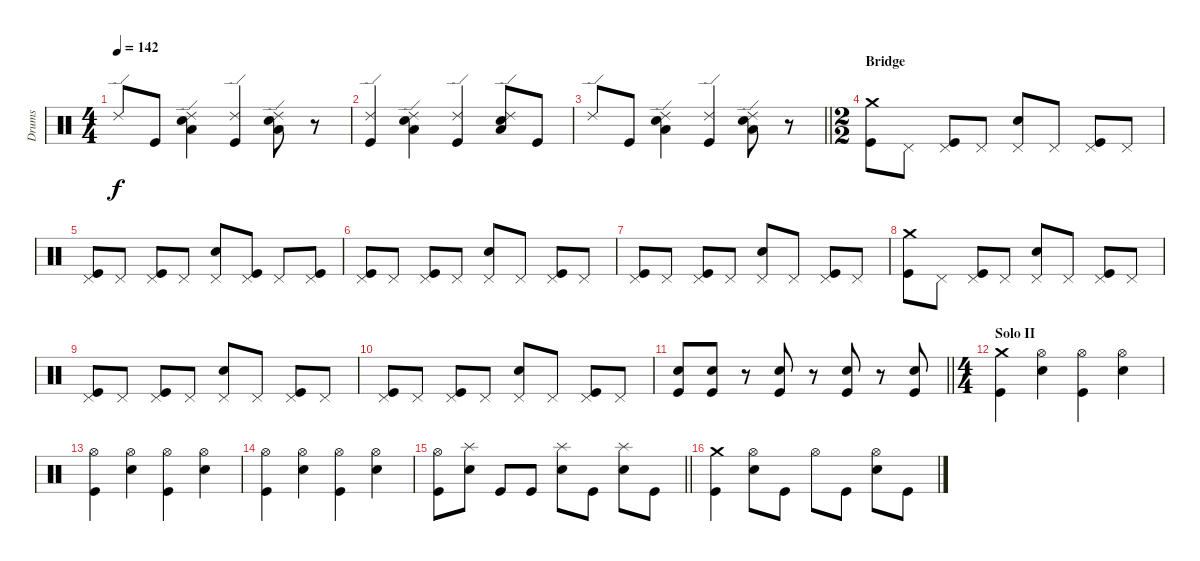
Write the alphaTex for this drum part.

\track ("Drums" "Drums") {instrument percussion}
\staff {score}
\articulation defaults
\ts (4 4)
\tempo 142
\clef neutral
\ks c "Ride (edge) 2".8{dy f} "Kick (hit)".8
("Ride (edge) 2" "Low Tom (hit)" "Electric Snare (hit)").4 ("Ride (edge) 2" "Kick (hit)").4 ("Ride (edge) 2" "Low Tom (hit)" "Electric Snare (hit)").8 r.8 |
("Ride (edge) 2" "Kick (hit)").4 ("Ride (edge) 2" "Low Tom (hit)" "Electric Snare (hit)").4 ("Ride (edge) 2" "Kick (hit)").4 ("Ride (edge) 2" "Low Tom (hit)" "Electric Snare (hit)").8 "Kick (hit)".8 |
\barLineRight lightlight "Ride (edge) 2".8 "Kick (hit)".8
("Ride (edge) 2" "Low Tom (hit)" "Electric Snare (hit)").4 ("Ride (edge) 2" "Kick (hit)").4 ("Ride (edge) 2" "Low Tom (hit)" "Electric Snare (hit)").8 r.8 |
\ts (2 2)
\section ("" "Bridge")
("Crash medium (hit)" "Kick (hit)").8 "Pedal Hi-Hat (hit)".8 ("Pedal Hi-Hat (hit)" "Kick (hit)").8 "Pedal Hi-Hat (hit)".8 ("Pedal Hi-Hat (hit)" "Electric Snare (hit)").8 "Pedal Hi-Hat (hit)".8 ("Pedal Hi-Hat (hit)" "Kick (hit)").8 "Pedal Hi-Hat (hit)".8 |
("Pedal Hi-Hat (hit)" "Kick (hit)").8 "Pedal Hi-Hat (hit)".8 ("Pedal Hi-Hat (hit)" "Kick (hit)").8 "Pedal Hi-Hat (hit)".8 ("Pedal Hi-Hat (hit)" "Electric Snare (hit)").8 ("Pedal Hi-Hat (hit)" "Kick (hit)").8 "Pedal Hi-Hat (hit)".8 ("Pedal Hi-Hat (hit)" "Kick (hit)").8 |
("Pedal Hi-Hat (hit)" "Kick (hit)").8 "Pedal Hi-Hat (hit)".8 ("Pedal Hi-Hat (hit)" "Kick (hit)").8 "Pedal Hi-Hat (hit)".8 ("Pedal Hi-Hat (hit)" "Electric Snare (hit)").8 "Pedal Hi-Hat (hit)".8 ("Pedal Hi-Hat (hit)" "Kick (hit)").8 "Pedal Hi-Hat (hit)".8 |
("Pedal Hi-Hat (hit)" "Kick (hit)").8 "Pedal Hi-Hat (hit)".8 ("Pedal Hi-Hat (hit)" "Kick (hit)").8 "Pedal Hi-Hat (hit)".8 ("Pedal Hi-Hat (hit)" "Electric Snare (hit)").8 "Pedal Hi-Hat (hit)".8 ("Pedal Hi-Hat (hit)" "Kick (hit)").8 "Pedal Hi-Hat (hit)".8 |
("Crash medium (hit)" "Kick (hit)").8 "Pedal Hi-Hat (hit)".8 ("Pedal Hi-Hat (hit)" "Kick (hit)").8 "Pedal Hi-Hat (hit)".8 ("Pedal Hi-Hat (hit)" "Electric Snare (hit)").8 "Pedal Hi-Hat (hit)".8 ("Pedal Hi-Hat (hit)" "Kick (hit)").8 "Pedal Hi-Hat (hit)".8 |
("Pedal Hi-Hat (hit)" "Kick (hit)").8 "Pedal Hi-Hat (hit)".8 ("Pedal Hi-Hat (hit)" "Kick (hit)").8 "Pedal Hi-Hat (hit)".8 ("Pedal Hi-Hat (hit)" "Electric Snare (hit)").8 "Pedal Hi-Hat (hit)".8 ("Pedal Hi-Hat (hit)" "Kick (hit)").8 "Pedal Hi-Hat (hit)".8 |
("Pedal Hi-Hat (hit)" "Kick (hit)").8 "Pedal Hi-Hat (hit)".8 ("Pedal Hi-Hat (hit)" "Kick (hit)").8 "Pedal Hi-Hat (hit)".8 ("Pedal Hi-Hat (hit)" "Electric Snare (hit)").8 "Pedal Hi-Hat (hit)".8 ("Pedal Hi-Hat (hit)" "Kick (hit)").8 "Pedal Hi-Hat (hit)".8 |
\barLineRight lightlight
("Electric Snare (hit)" "Kick (hit)").8 ("Electric Snare (hit)" "Kick (hit)").8 r.8 ("Electric Snare (hit)" "Kick (hit)").8 r.8 ("Electric Snare (hit)" "Kick (hit)").8 r.8 ("Electric Snare (hit)" "Kick (hit)").8 |
\ts (4 4)
\section ("" "Solo II")
("Crash medium (hit)" "Kick (hit)").4 ("Hi-Hat (open)" "Electric Snare (hit)").4 ("Hi-Hat (open)" "Kick (hit)").4 ("Hi-Hat (open)" "Electric Snare (hit)").4 |
("Hi-Hat (open)" "Kick (hit)").4 ("Hi-Hat (open)" "Electric Snare (hit)").4 ("Hi-Hat (open)" "Kick (hit)").4 ("Hi-Hat (open)" "Electric Snare (hit)").4 |
("Hi-Hat (open)" "Kick (hit)").4 ("Hi-Hat (open)" "Electric Snare (hit)").4 ("Hi-Hat (open)" "Kick (hit)").4 ("Hi-Hat (open)" "Electric Snare (hit)").4 |
\barLineRight lightlight
("Hi-Hat (open)" "Kick (hit)").8 ("Splash (hit)" "Electric Snare (hit)").8 "Kick (hit)".8 "Kick (hit)".8 ("Splash (hit)" "Electric Snare (hit)").8 "Kick (hit)".8 ("Splash (hit)" "Electric Snare (hit)").8 "Kick (hit)".8 |
("Crash medium (hit)" "Kick (hit)").4 ("Hi-Hat (open)" "Electric Snare (hit)").8 "Kick (hit)".8 "Hi-Hat (open)".8 "Kick (hit)".8 ("Hi-Hat (open)" "Electric Snare (hit)").8 "Kick (hit)".8
